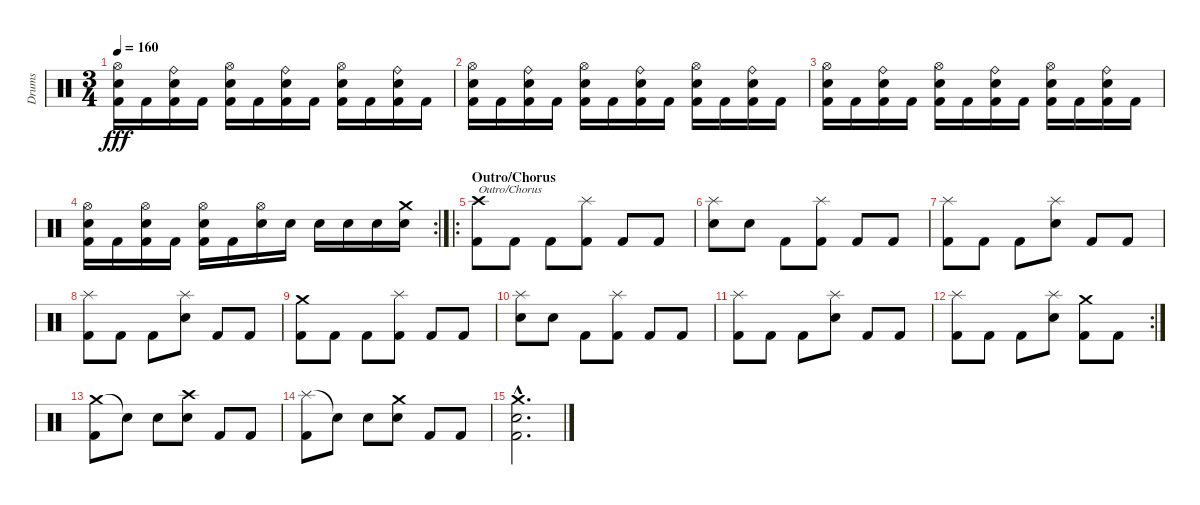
\track ("Drums" "Drums") {instrument percussion}
\staff {score}
\articulation defaults
\ts (3 4)
\tempo 160
\clef neutral
\ks c
("Hi-Hat (open)" "Electric Snare (hit)" "Kick (hit) 2").16{dy fff} "Kick (hit) 2".16 ("Ride (bell)" "Electric Snare (hit)" "Kick (hit) 2").16 "Kick (hit) 2".16 ("Hi-Hat (open)" "Electric Snare (hit)" "Kick (hit) 2").16 "Kick (hit) 2".16 ("Ride (bell)" "Electric Snare (hit)" "Kick (hit) 2").16 "Kick (hit) 2".16 ("Hi-Hat (open)" "Electric Snare (hit)" "Kick (hit) 2").16 "Kick (hit) 2".16 ("Ride (bell)" "Electric Snare (hit)" "Kick (hit) 2").16 "Kick (hit) 2".16 |
("Hi-Hat (open)" "Electric Snare (hit)" "Kick (hit) 2").16 "Kick (hit) 2".16 ("Ride (bell)" "Electric Snare (hit)" "Kick (hit) 2").16 "Kick (hit) 2".16 ("Hi-Hat (open)" "Electric Snare (hit)" "Kick (hit) 2").16 "Kick (hit) 2".16 ("Ride (bell)" "Electric Snare (hit)" "Kick (hit) 2").16 "Kick (hit) 2".16 ("Hi-Hat (open)" "Electric Snare (hit)" "Kick (hit) 2").16 "Kick (hit) 2".16 ("Ride (bell)" "Electric Snare (hit)" "Kick (hit) 2").16 "Kick (hit) 2".16 |
("Hi-Hat (open)" "Electric Snare (hit)" "Kick (hit) 2").16 "Kick (hit) 2".16 ("Ride (bell)" "Electric Snare (hit)" "Kick (hit) 2").16 "Kick (hit) 2".16 ("Hi-Hat (open)" "Electric Snare (hit)" "Kick (hit) 2").16 "Kick (hit) 2".16 ("Ride (bell)" "Electric Snare (hit)" "Kick (hit) 2").16 "Kick (hit) 2".16 ("Hi-Hat (open)" "Electric Snare (hit)" "Kick (hit) 2").16 "Kick (hit) 2".16 ("Ride (bell)" "Electric Snare (hit)" "Kick (hit) 2").16 "Kick (hit) 2".16 |
\rc 2
("Hi-Hat (open)" "Electric Snare (hit)" "Kick (hit) 2").16 "Kick (hit) 2".16 ("Hi-Hat (open)" "Electric Snare (hit)" "Kick (hit) 2").16 "Kick (hit) 2".16 ("Hi-Hat (open)" "Electric Snare (hit)" "Kick (hit) 2").16 "Kick (hit) 2".16 ("Hi-Hat (open)" "Electric Snare (hit)").16 "Electric Snare (hit)".16 "Electric Snare (hit)".16 "Electric Snare (hit)".16 "Electric Snare (hit)".16 ("Crash medium (hit)" "Electric Snare (hit)").16 |
\ro
\section ("" "Outro/Chorus")
("Crash high (hit)" "Kick (hit) 2").8{txt "Outro/Chorus"} "Kick (hit) 2".8 "Kick (hit) 2".8 ("Splash (hit)" "Kick (hit) 2").8 "Kick (hit) 2".8 "Kick (hit) 2".8 |
("Splash (hit)" "Electric Snare (hit)").8 "Electric Snare (hit)".8 "Kick (hit) 2".8 ("Splash (hit)" "Kick (hit) 2").8 "Kick (hit) 2".8 "Kick (hit) 2".8 |
("Splash (hit)" "Kick (hit) 2").8 "Kick (hit) 2".8 "Kick (hit) 2".8 ("Splash (hit)" "Electric Snare (hit)").8 "Kick (hit) 2".8 "Kick (hit) 2".8 |
("Splash (hit)" "Kick (hit) 2").8 "Kick (hit) 2".8 "Kick (hit) 2".8 ("Splash (hit)" "Electric Snare (hit)").8 "Kick (hit) 2".8 "Kick (hit) 2".8 |
("Crash medium (hit)" "Kick (hit) 2").8 "Kick (hit) 2".8 "Kick (hit) 2".8 ("Splash (hit)" "Kick (hit) 2").8 "Kick (hit) 2".8 "Kick (hit) 2".8 |
("Splash (hit)" "Electric Snare (hit)").8 "Electric Snare (hit)".8 "Kick (hit) 2".8 ("Splash (hit)" "Kick (hit) 2").8 "Kick (hit) 2".8 "Kick (hit) 2".8 |
("Splash (hit)" "Kick (hit) 2").8 "Kick (hit) 2".8 "Kick (hit) 2".8 ("Splash (hit)" "Electric Snare (hit)").8 "Kick (hit) 2".8 "Kick (hit) 2".8 |
\rc 2
("Splash (hit)" "Kick (hit) 2").8 "Kick (hit) 2".8 "Kick (hit) 2".8 ("Splash (hit)" "Electric Snare (hit)").8 ("Crash medium (hit)" "Kick (hit) 2").8 "Kick (hit) 2".8 |
("Crash medium (hit)" "Kick (hit) 2").8 "Snare (hit)"{t}.8 "Electric Snare (hit)".8 ("Crash high (hit)" "Electric Snare (hit)").8 "Kick (hit) 2".8 "Kick (hit) 2".8 |
("Splash (hit)" "Kick (hit) 2").8 "Snare (hit)"{t}.8 "Electric Snare (hit)".8 ("Crash medium (hit)" "Electric Snare (hit)").8 "Kick (hit) 2".8 "Kick (hit) 2".8 |
("Crash medium (hit)"{hac} "Electric Snare (hit)"{hac} "Kick (hit) 2"{hac}).2{d}
